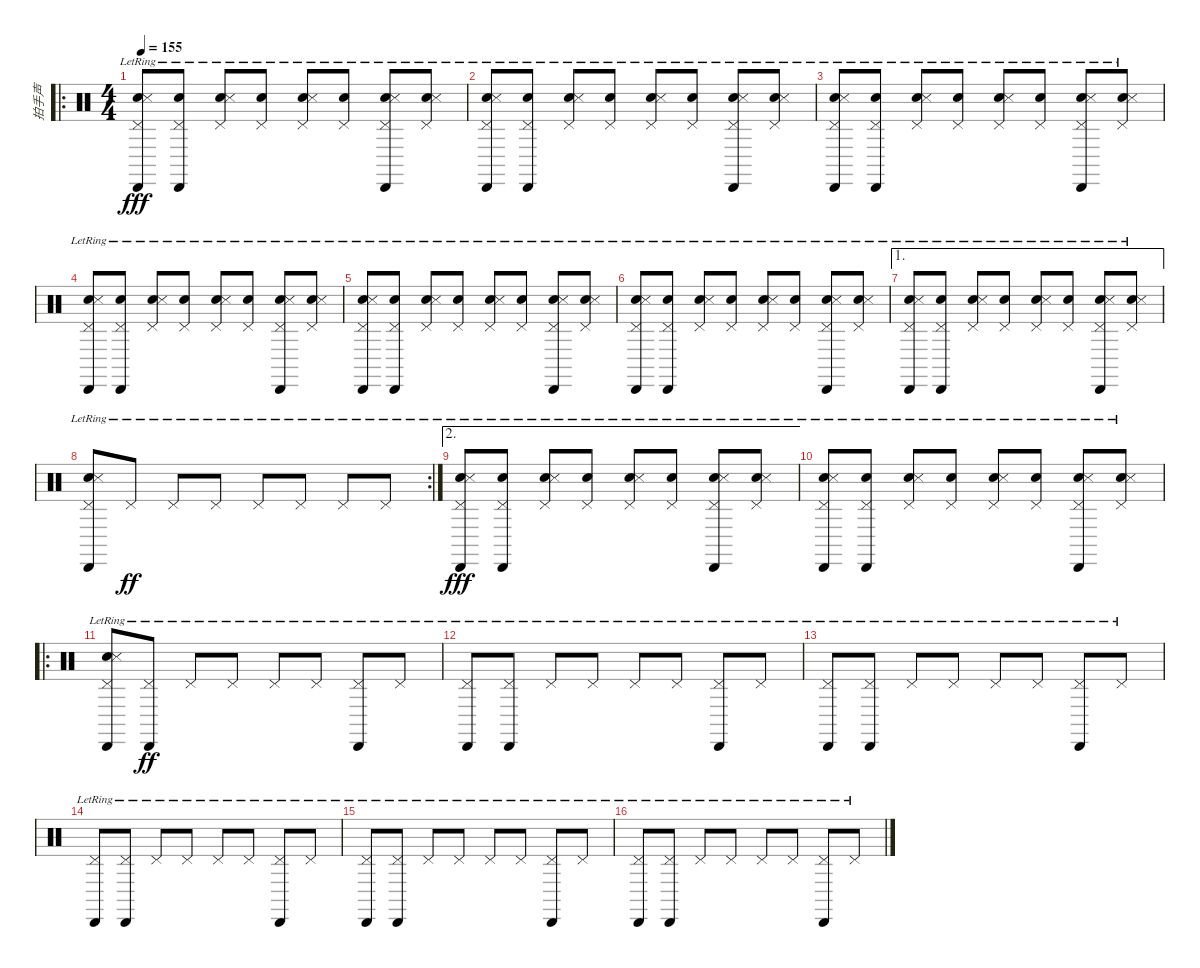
\track ("拍手声" "拍手声") {instrument percussion}
\staff {score}
\articulation defaults
\ro
\ts (4 4)
\tempo 155
\clef neutral
\ks c
("Pedal Hi-Hat (hit)"{lr} "Cabasa (hit)"{lr} "Hand Clap (hit)"{lr} "Snare (side stick) 3"{lr}).8{dy fff} ("Pedal Hi-Hat (hit)"{lr} "Cabasa (hit)"{lr} "Hand Clap (hit)"{lr}).8 ("Pedal Hi-Hat (hit)"{lr} "Hand Clap (hit)"{lr} "Snare (side stick) 3"{lr}).8 ("Pedal Hi-Hat (hit)"{lr} "Hand Clap (hit)"{lr}).8 ("Pedal Hi-Hat (hit)"{lr} "Hand Clap (hit)"{lr} "Snare (side stick) 3"{lr}).8 ("Pedal Hi-Hat (hit)"{lr} "Hand Clap (hit)"{lr}).8 ("Pedal Hi-Hat (hit)"{lr} "Cabasa (hit)"{lr} "Hand Clap (hit)"{lr} "Snare (side stick) 3"{lr}).8 ("Pedal Hi-Hat (hit)"{lr} "Hand Clap (hit)"{lr} "Snare (side stick) 3"{lr}).8 |
("Pedal Hi-Hat (hit)"{lr} "Cabasa (hit)"{lr} "Hand Clap (hit)"{lr} "Snare (side stick) 3"{lr}).8 ("Pedal Hi-Hat (hit)"{lr} "Cabasa (hit)"{lr} "Hand Clap (hit)"{lr}).8 ("Pedal Hi-Hat (hit)"{lr} "Hand Clap (hit)"{lr} "Snare (side stick) 3"{lr}).8 ("Pedal Hi-Hat (hit)"{lr} "Hand Clap (hit)"{lr}).8 ("Pedal Hi-Hat (hit)"{lr} "Hand Clap (hit)"{lr} "Snare (side stick) 3"{lr}).8 ("Pedal Hi-Hat (hit)"{lr} "Hand Clap (hit)"{lr}).8 ("Pedal Hi-Hat (hit)"{lr} "Cabasa (hit)"{lr} "Hand Clap (hit)"{lr} "Snare (side stick) 3"{lr}).8 ("Pedal Hi-Hat (hit)"{lr} "Hand Clap (hit)"{lr} "Snare (side stick) 3"{lr}).8 |
("Pedal Hi-Hat (hit)"{lr} "Cabasa (hit)"{lr} "Hand Clap (hit)"{lr} "Snare (side stick) 3"{lr}).8 ("Pedal Hi-Hat (hit)"{lr} "Cabasa (hit)"{lr} "Hand Clap (hit)"{lr}).8 ("Pedal Hi-Hat (hit)"{lr} "Hand Clap (hit)"{lr} "Snare (side stick) 3"{lr}).8 ("Pedal Hi-Hat (hit)"{lr} "Hand Clap (hit)"{lr}).8 ("Pedal Hi-Hat (hit)"{lr} "Hand Clap (hit)"{lr} "Snare (side stick) 3"{lr}).8 ("Pedal Hi-Hat (hit)"{lr} "Hand Clap (hit)"{lr}).8 ("Pedal Hi-Hat (hit)"{lr} "Cabasa (hit)"{lr} "Hand Clap (hit)"{lr} "Snare (side stick) 3"{lr}).8 ("Pedal Hi-Hat (hit)"{lr} "Hand Clap (hit)"{lr} "Snare (side stick) 3"{lr}).8 |
("Pedal Hi-Hat (hit)"{lr} "Cabasa (hit)"{lr} "Hand Clap (hit)"{lr} "Snare (side stick) 3"{lr}).8 ("Pedal Hi-Hat (hit)"{lr} "Cabasa (hit)"{lr} "Hand Clap (hit)"{lr}).8 ("Pedal Hi-Hat (hit)"{lr} "Hand Clap (hit)"{lr} "Snare (side stick) 3"{lr}).8 ("Pedal Hi-Hat (hit)"{lr} "Hand Clap (hit)"{lr}).8 ("Pedal Hi-Hat (hit)"{lr} "Hand Clap (hit)"{lr} "Snare (side stick) 3"{lr}).8 ("Pedal Hi-Hat (hit)"{lr} "Hand Clap (hit)"{lr}).8 ("Pedal Hi-Hat (hit)"{lr} "Cabasa (hit)"{lr} "Hand Clap (hit)"{lr} "Snare (side stick) 3"{lr}).8 ("Pedal Hi-Hat (hit)"{lr} "Hand Clap (hit)"{lr} "Snare (side stick) 3"{lr}).8 |
("Pedal Hi-Hat (hit)"{lr} "Cabasa (hit)"{lr} "Hand Clap (hit)"{lr} "Snare (side stick) 3"{lr}).8 ("Pedal Hi-Hat (hit)"{lr} "Cabasa (hit)"{lr} "Hand Clap (hit)"{lr}).8 ("Pedal Hi-Hat (hit)"{lr} "Hand Clap (hit)"{lr} "Snare (side stick) 3"{lr}).8 ("Pedal Hi-Hat (hit)"{lr} "Hand Clap (hit)"{lr}).8 ("Pedal Hi-Hat (hit)"{lr} "Hand Clap (hit)"{lr} "Snare (side stick) 3"{lr}).8 ("Pedal Hi-Hat (hit)"{lr} "Hand Clap (hit)"{lr}).8 ("Pedal Hi-Hat (hit)"{lr} "Cabasa (hit)"{lr} "Hand Clap (hit)"{lr} "Snare (side stick) 3"{lr}).8 ("Pedal Hi-Hat (hit)"{lr} "Hand Clap (hit)"{lr} "Snare (side stick) 3"{lr}).8 |
("Pedal Hi-Hat (hit)"{lr} "Cabasa (hit)"{lr} "Hand Clap (hit)"{lr} "Snare (side stick) 3"{lr}).8 ("Pedal Hi-Hat (hit)"{lr} "Cabasa (hit)"{lr} "Hand Clap (hit)"{lr}).8 ("Pedal Hi-Hat (hit)"{lr} "Hand Clap (hit)"{lr} "Snare (side stick) 3"{lr}).8 ("Pedal Hi-Hat (hit)"{lr} "Hand Clap (hit)"{lr}).8 ("Pedal Hi-Hat (hit)"{lr} "Hand Clap (hit)"{lr} "Snare (side stick) 3"{lr}).8 ("Pedal Hi-Hat (hit)"{lr} "Hand Clap (hit)"{lr}).8 ("Pedal Hi-Hat (hit)"{lr} "Cabasa (hit)"{lr} "Hand Clap (hit)"{lr} "Snare (side stick) 3"{lr}).8 ("Pedal Hi-Hat (hit)"{lr} "Hand Clap (hit)"{lr} "Snare (side stick) 3"{lr}).8 |
\ae 1
("Pedal Hi-Hat (hit)"{lr} "Cabasa (hit)"{lr} "Hand Clap (hit)"{lr} "Snare (side stick) 3"{lr}).8 ("Pedal Hi-Hat (hit)"{lr} "Cabasa (hit)"{lr} "Hand Clap (hit)"{lr}).8 ("Pedal Hi-Hat (hit)"{lr} "Hand Clap (hit)"{lr} "Snare (side stick) 3"{lr}).8 ("Pedal Hi-Hat (hit)"{lr} "Hand Clap (hit)"{lr}).8 ("Pedal Hi-Hat (hit)"{lr} "Hand Clap (hit)"{lr} "Snare (side stick) 3"{lr}).8 ("Pedal Hi-Hat (hit)"{lr} "Hand Clap (hit)"{lr}).8 ("Pedal Hi-Hat (hit)"{lr} "Cabasa (hit)"{lr} "Hand Clap (hit)"{lr} "Snare (side stick) 3"{lr}).8 ("Pedal Hi-Hat (hit)"{lr} "Hand Clap (hit)"{lr} "Snare (side stick) 3"{lr}).8 |
\rc 2
("Pedal Hi-Hat (hit)"{lr} "Cabasa (hit)"{lr} "Hand Clap (hit)"{lr} "Snare (side stick) 3"{lr}).8 "Pedal Hi-Hat (hit)"{lr}.8{dy ff} "Pedal Hi-Hat (hit)"{lr}.8 "Pedal Hi-Hat (hit)"{lr}.8 "Pedal Hi-Hat (hit)"{lr}.8 "Pedal Hi-Hat (hit)"{lr}.8 "Pedal Hi-Hat (hit)"{lr}.8 "Pedal Hi-Hat (hit)"{lr}.8 |
\ae 2
("Pedal Hi-Hat (hit)"{lr} "Cabasa (hit)"{lr} "Hand Clap (hit)"{lr} "Snare (side stick) 3"{lr}).8{dy fff} ("Pedal Hi-Hat (hit)"{lr} "Cabasa (hit)"{lr} "Hand Clap (hit)"{lr}).8 ("Pedal Hi-Hat (hit)"{lr} "Hand Clap (hit)"{lr} "Snare (side stick) 3"{lr}).8 ("Pedal Hi-Hat (hit)"{lr} "Hand Clap (hit)"{lr}).8 ("Pedal Hi-Hat (hit)"{lr} "Hand Clap (hit)"{lr} "Snare (side stick) 3"{lr}).8 ("Pedal Hi-Hat (hit)"{lr} "Hand Clap (hit)"{lr}).8 ("Pedal Hi-Hat (hit)"{lr} "Cabasa (hit)"{lr} "Hand Clap (hit)"{lr} "Snare (side stick) 3"{lr}).8 ("Pedal Hi-Hat (hit)"{lr} "Hand Clap (hit)"{lr} "Snare (side stick) 3"{lr}).8 |
("Pedal Hi-Hat (hit)"{lr} "Cabasa (hit)"{lr} "Hand Clap (hit)"{lr} "Snare (side stick) 3"{lr}).8 ("Pedal Hi-Hat (hit)"{lr} "Cabasa (hit)"{lr} "Hand Clap (hit)"{lr}).8 ("Pedal Hi-Hat (hit)"{lr} "Hand Clap (hit)"{lr} "Snare (side stick) 3"{lr}).8 ("Pedal Hi-Hat (hit)"{lr} "Hand Clap (hit)"{lr}).8 ("Pedal Hi-Hat (hit)"{lr} "Hand Clap (hit)"{lr} "Snare (side stick) 3"{lr}).8 ("Pedal Hi-Hat (hit)"{lr} "Hand Clap (hit)"{lr}).8 ("Pedal Hi-Hat (hit)"{lr} "Cabasa (hit)"{lr} "Hand Clap (hit)"{lr} "Snare (side stick) 3"{lr}).8 ("Pedal Hi-Hat (hit)"{lr} "Hand Clap (hit)"{lr} "Snare (side stick) 3"{lr}).8 |
\ro
("Pedal Hi-Hat (hit)"{lr} "Cabasa (hit)"{lr} "Hand Clap (hit)"{lr} "Snare (side stick) 3"{lr}).8 ("Pedal Hi-Hat (hit)"{lr} "Cabasa (hit)"{lr}).8{dy ff} "Pedal Hi-Hat (hit)"{lr}.8 "Pedal Hi-Hat (hit)"{lr}.8 "Pedal Hi-Hat (hit)"{lr}.8 "Pedal Hi-Hat (hit)"{lr}.8 ("Pedal Hi-Hat (hit)"{lr} "Cabasa (hit)"{lr}).8 "Pedal Hi-Hat (hit)"{lr}.8 |
("Pedal Hi-Hat (hit)"{lr} "Cabasa (hit)"{lr}).8 ("Pedal Hi-Hat (hit)"{lr} "Cabasa (hit)"{lr}).8 "Pedal Hi-Hat (hit)"{lr}.8 "Pedal Hi-Hat (hit)"{lr}.8 "Pedal Hi-Hat (hit)"{lr}.8 "Pedal Hi-Hat (hit)"{lr}.8 ("Pedal Hi-Hat (hit)"{lr} "Cabasa (hit)"{lr}).8 "Pedal Hi-Hat (hit)"{lr}.8 |
("Pedal Hi-Hat (hit)"{lr} "Cabasa (hit)"{lr}).8 ("Pedal Hi-Hat (hit)"{lr} "Cabasa (hit)"{lr}).8 "Pedal Hi-Hat (hit)"{lr}.8 "Pedal Hi-Hat (hit)"{lr}.8 "Pedal Hi-Hat (hit)"{lr}.8 "Pedal Hi-Hat (hit)"{lr}.8 ("Pedal Hi-Hat (hit)"{lr} "Cabasa (hit)"{lr}).8 "Pedal Hi-Hat (hit)"{lr}.8 |
("Pedal Hi-Hat (hit)"{lr} "Cabasa (hit)"{lr}).8 ("Pedal Hi-Hat (hit)"{lr} "Cabasa (hit)"{lr}).8 "Pedal Hi-Hat (hit)"{lr}.8 "Pedal Hi-Hat (hit)"{lr}.8 "Pedal Hi-Hat (hit)"{lr}.8 "Pedal Hi-Hat (hit)"{lr}.8 ("Pedal Hi-Hat (hit)"{lr} "Cabasa (hit)"{lr}).8 "Pedal Hi-Hat (hit)"{lr}.8 |
("Pedal Hi-Hat (hit)"{lr} "Cabasa (hit)"{lr}).8 ("Pedal Hi-Hat (hit)"{lr} "Cabasa (hit)"{lr}).8 "Pedal Hi-Hat (hit)"{lr}.8 "Pedal Hi-Hat (hit)"{lr}.8 "Pedal Hi-Hat (hit)"{lr}.8 "Pedal Hi-Hat (hit)"{lr}.8 ("Pedal Hi-Hat (hit)"{lr} "Cabasa (hit)"{lr}).8 "Pedal Hi-Hat (hit)"{lr}.8 |
("Pedal Hi-Hat (hit)"{lr} "Cabasa (hit)"{lr}).8 ("Pedal Hi-Hat (hit)"{lr} "Cabasa (hit)"{lr}).8 "Pedal Hi-Hat (hit)"{lr}.8 "Pedal Hi-Hat (hit)"{lr}.8 "Pedal Hi-Hat (hit)"{lr}.8 "Pedal Hi-Hat (hit)"{lr}.8 ("Pedal Hi-Hat (hit)"{lr} "Cabasa (hit)"{lr}).8 "Pedal Hi-Hat (hit)"{lr}.8
